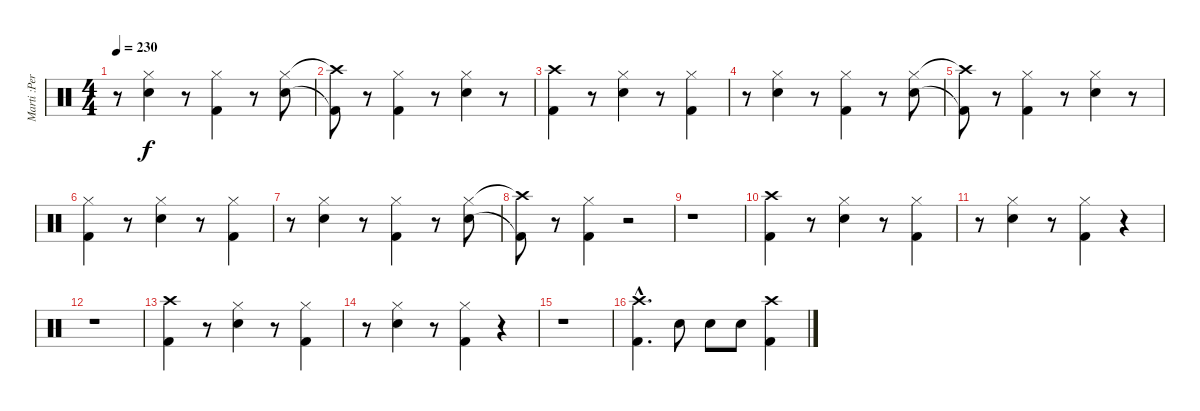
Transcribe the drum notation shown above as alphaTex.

\track ("Marti :Percussion" "Marti :Per") {instrument percussion}
\staff {score}
\articulation defaults
\ts (4 4)
\tempo 230
\clef neutral
\ks c
r.8{dy f} ("Hi-Hat (closed)" "Snare (hit) 2").4 r.8 ("Hi-Hat (closed)" "Kick (hit) 2").4 r.8 ("Hi-Hat (closed)" "Snare (hit) 2").8 |
("Crash high (hit)"{t} "Kick (hit) 2"{t}).8 r.8 ("Hi-Hat (closed)" "Kick (hit) 2").4 r.8 ("Hi-Hat (closed)" "Snare (hit) 2").4 r.8 |
("Crash high (hit)" "Kick (hit) 2").4 r.8 ("Hi-Hat (closed)" "Snare (hit) 2").4 r.8 ("Hi-Hat (closed)" "Kick (hit) 2").4 |
r.8 ("Hi-Hat (closed)" "Snare (hit) 2").4 r.8 ("Hi-Hat (closed)" "Kick (hit) 2").4 r.8 ("Hi-Hat (closed)" "Snare (hit) 2").8 |
("Crash high (hit)"{t} "Kick (hit) 2"{t}).8 r.8 ("Hi-Hat (closed)" "Kick (hit) 2").4 r.8 ("Hi-Hat (closed)" "Snare (hit) 2").4 r.8 |
("Hi-Hat (closed)" "Kick (hit) 2").4 r.8 ("Hi-Hat (closed)" "Snare (hit) 2").4 r.8 ("Hi-Hat (closed)" "Kick (hit) 2").4 |
r.8 ("Hi-Hat (closed)" "Snare (hit) 2").4 r.8 ("Hi-Hat (closed)" "Kick (hit) 2").4 r.8 ("Hi-Hat (closed)" "Snare (hit) 2").8 |
("Crash high (hit)"{t} "Kick (hit) 2"{t}).8 r.8 ("Hi-Hat (closed)" "Kick (hit) 2").4 r.2 |
r.1 |
("Crash high (hit)" "Kick (hit) 2").4 r.8 ("Hi-Hat (closed)" "Snare (hit) 2").4 r.8 ("Hi-Hat (closed)" "Kick (hit) 2").4 |
r.8 ("Hi-Hat (closed)" "Snare (hit) 2").4 r.8 ("Hi-Hat (closed)" "Kick (hit) 2").4 r.4 |
r.1 |
("Crash high (hit)" "Kick (hit) 2").4 r.8 ("Hi-Hat (closed)" "Snare (hit) 2").4 r.8 ("Hi-Hat (closed)" "Kick (hit) 2").4 |
r.8 ("Hi-Hat (closed)" "Snare (hit) 2").4 r.8 ("Hi-Hat (closed)" "Kick (hit) 2").4 r.4 |
r.1 |
("Crash high (hit)"{hac} "Kick (hit) 2"{hac}).4{d} "Snare (hit) 2".8 "Snare (hit) 2".8 "Snare (hit) 2".8 ("Crash high (hit)" "Kick (hit) 2").4
